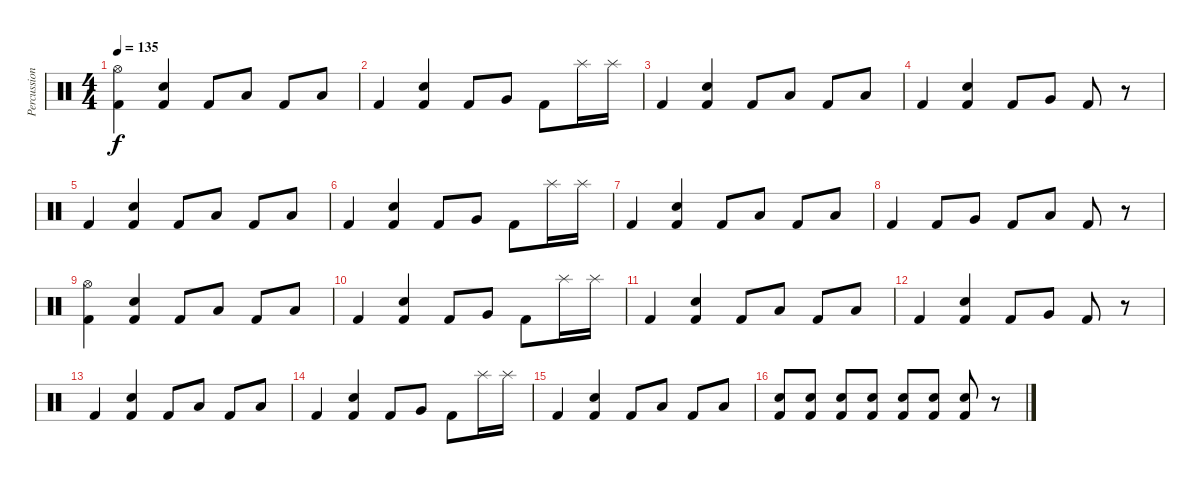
\track ("Percussion" "Percussion") {instrument percussion}
\staff {score}
\articulation defaults
\ts (4 4)
\tempo 135
\clef neutral
\ks c
("Hi-Hat (open)" "Kick (hit) 2").4{dy f} ("Snare (hit) 2" "Kick (hit) 2").4 "Kick (hit) 2".8 "Low Tom (hit)".8 "Kick (hit) 2".8 "Low Tom (hit)".8 |
"Kick (hit) 2".4 ("Snare (hit) 2" "Kick (hit) 2").4 "Kick (hit) 2".8 "Very Low Tom (hit)".8 "Kick (hit) 2".8 "Splash (hit)".16 "Splash (hit)".16 |
"Kick (hit) 2".4 ("Snare (hit) 2" "Kick (hit) 2").4 "Kick (hit) 2".8 "Low Tom (hit)".8 "Kick (hit) 2".8 "Low Tom (hit)".8 |
"Kick (hit) 2".4 ("Snare (hit) 2" "Kick (hit) 2").4 "Kick (hit) 2".8 "Very Low Tom (hit)".8 "Kick (hit) 2".8 r.8 |
"Kick (hit) 2".4 ("Snare (hit) 2" "Kick (hit) 2").4 "Kick (hit) 2".8 "Low Tom (hit)".8 "Kick (hit) 2".8 "Low Tom (hit)".8 |
"Kick (hit) 2".4 ("Snare (hit) 2" "Kick (hit) 2").4 "Kick (hit) 2".8 "Very Low Tom (hit)".8 "Kick (hit) 2".8 "Splash (hit)".16 "Splash (hit)".16 |
"Kick (hit) 2".4 ("Snare (hit) 2" "Kick (hit) 2").4 "Kick (hit) 2".8 "Low Tom (hit)".8 "Kick (hit) 2".8 "Low Tom (hit)".8 |
"Kick (hit) 2".4 "Kick (hit) 2".8 "Very Low Tom (hit)".8 "Kick (hit) 2".8 "Low Floor Tom (hit)".8 "Kick (hit) 2".8 r.8 |
("Hi-Hat (open)" "Kick (hit) 2").4 ("Snare (hit) 2" "Kick (hit) 2").4 "Kick (hit) 2".8 "Low Tom (hit)".8 "Kick (hit) 2".8 "Low Tom (hit)".8 |
"Kick (hit) 2".4 ("Snare (hit) 2" "Kick (hit) 2").4 "Kick (hit) 2".8 "Very Low Tom (hit)".8 "Kick (hit) 2".8 "Splash (hit)".16 "Splash (hit)".16 |
"Kick (hit) 2".4 ("Snare (hit) 2" "Kick (hit) 2").4 "Kick (hit) 2".8 "Low Tom (hit)".8 "Kick (hit) 2".8 "Low Tom (hit)".8 |
"Kick (hit) 2".4 ("Snare (hit) 2" "Kick (hit) 2").4 "Kick (hit) 2".8 "Very Low Tom (hit)".8 "Kick (hit) 2".8 r.8 |
"Kick (hit) 2".4 ("Snare (hit) 2" "Kick (hit) 2").4 "Kick (hit) 2".8 "Low Tom (hit)".8 "Kick (hit) 2".8 "Low Tom (hit)".8 |
"Kick (hit) 2".4 ("Snare (hit) 2" "Kick (hit) 2").4 "Kick (hit) 2".8 "Very Low Tom (hit)".8 "Kick (hit) 2".8 "Splash (hit)".16 "Splash (hit)".16 |
"Kick (hit) 2".4 ("Snare (hit) 2" "Kick (hit) 2").4 "Kick (hit) 2".8 "Low Tom (hit)".8 "Kick (hit) 2".8 "Low Tom (hit)".8 |
("Snare (hit) 2" "Kick (hit) 2").8 ("Snare (hit) 2" "Kick (hit) 2").8 ("Snare (hit) 2" "Kick (hit) 2").8 ("Snare (hit) 2" "Kick (hit) 2").8 ("Snare (hit) 2" "Kick (hit) 2").8 ("Snare (hit) 2" "Kick (hit) 2").8 ("Snare (hit) 2" "Kick (hit) 2").8 r.8
